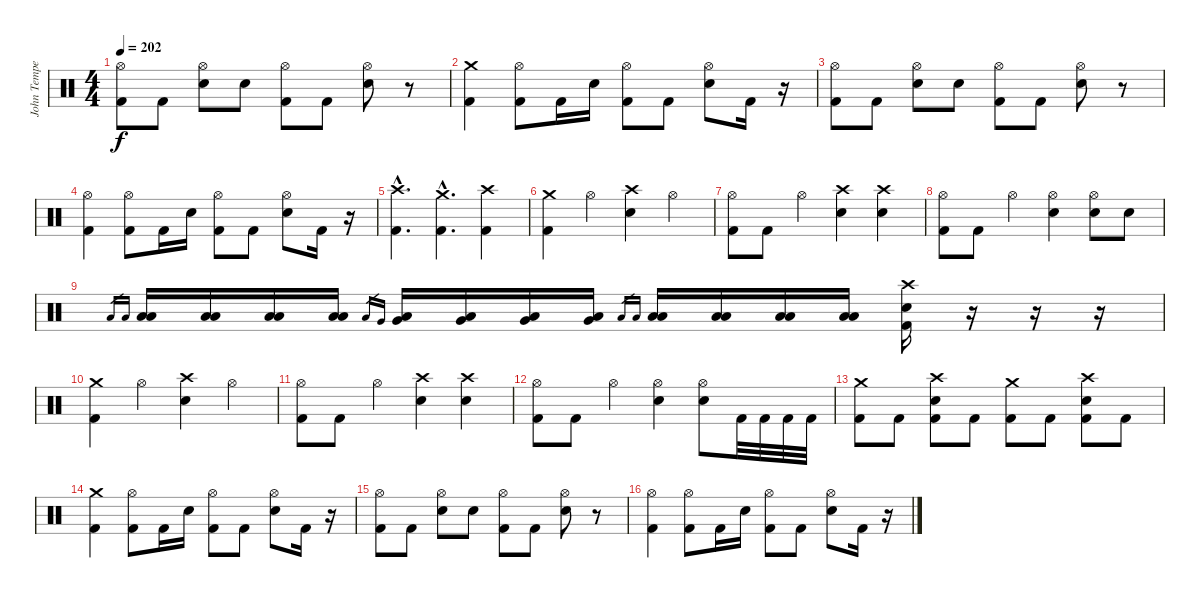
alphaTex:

\track ("John Tempesta" "John Tempe") {instrument percussion}
\staff {score}
\articulation defaults
\ts (4 4)
\tempo 202
\clef neutral
\ks c
("Kick (hit) 2" "Hi-Hat (open)").8{dy f} "Kick (hit) 2".8 ("Snare (hit) 2" "Hi-Hat (open)").8 "Snare (hit) 2".8 ("Kick (hit) 2" "Hi-Hat (open)").8 "Kick (hit) 2".8 ("Snare (hit) 2" "Hi-Hat (open)").8 r.8 |
("Kick (hit) 2" "Crash medium (hit)").4 ("Kick (hit) 2" "Hi-Hat (open)").8 "Kick (hit) 2".16 "Snare (hit) 2".16 ("Hi-Hat (open)" "Kick (hit) 2").8 "Kick (hit) 2".8 ("Snare (hit) 2" "Hi-Hat (open)").8 "Kick (hit) 2".16 r.16 |
("Kick (hit) 2" "Hi-Hat (open)").8 "Kick (hit) 2".8 ("Snare (hit) 2" "Hi-Hat (open)").8 "Snare (hit) 2".8 ("Kick (hit) 2" "Hi-Hat (open)").8 "Kick (hit) 2".8 ("Snare (hit) 2" "Hi-Hat (open)").8 r.8 |
("Kick (hit) 2" "Hi-Hat (open)").4 ("Kick (hit) 2" "Hi-Hat (open)").8 "Kick (hit) 2".16 "Snare (hit) 2".16 ("Hi-Hat (open)" "Kick (hit) 2").8 "Kick (hit) 2".8 ("Snare (hit) 2" "Hi-Hat (open)").8 "Kick (hit) 2".16 r.16 |
("Kick (hit) 2"{hac} "Crash high (hit)"{hac}).4{d} ("Kick (hit) 2"{hac} "Crash medium (hit)"{hac}).4{d} ("Kick (hit) 2" "Crash high (hit)").4 |
("Kick (hit) 2" "Crash medium (hit)").4 "Hi-Hat (open)".4 ("Snare (hit) 2" "Crash high (hit)").4 "Hi-Hat (open)".4 |
("Kick (hit) 2" "Hi-Hat (open)").8 "Kick (hit) 2".8 "Hi-Hat (open)".4 ("Snare (hit) 2" "Crash high (hit)").4 ("Snare (hit) 2" "Crash high (hit)").4 |
("Kick (hit) 2" "Hi-Hat (open)").8 "Kick (hit) 2".8 "Hi-Hat (open)".4 ("Snare (hit) 2" "Hi-Hat (open)").4 ("Snare (hit) 2" "Hi-Hat (open)").8 "Snare (hit) 2".8 |
"Low Floor Tom (hit)".16{gr} "Low Tom (hit)".16{gr} ("Low Floor Tom (hit)" "Low Tom (hit)").16 ("Low Floor Tom (hit)" "Low Tom (hit)").16 ("Low Floor Tom (hit)" "Low Tom (hit)").16 ("Low Floor Tom (hit)" "Low Tom (hit)").16 "Low Floor Tom (hit)".16{gr} "Very Low Tom (hit)".16{gr} ("Low Floor Tom (hit)" "Very Low Tom (hit)").16 ("Low Floor Tom (hit)" "Very Low Tom (hit)").16 ("Low Floor Tom (hit)" "Very Low Tom (hit)").16 ("Low Floor Tom (hit)" "Very Low Tom (hit)").16 "Low Floor Tom (hit)".16{gr} "Low Floor Tom (hit)".16{gr} ("Low Floor Tom (hit)" "Low Floor Tom (hit)").16 ("Low Floor Tom (hit)" "Low Floor Tom (hit)").16 ("Low Floor Tom (hit)" "Low Floor Tom (hit)").16 ("Low Floor Tom (hit)" "Low Floor Tom (hit)").16 ("Kick (hit) 2" "Crash high (hit)" "Snare (hit) 2").16 r.16 r.16 r.16 |
("Kick (hit) 2" "Crash medium (hit)").4 "Hi-Hat (open)".4 ("Snare (hit) 2" "Crash high (hit)").4 "Hi-Hat (open)".4 |
("Kick (hit) 2" "Hi-Hat (open)").8 "Kick (hit) 2".8 "Hi-Hat (open)".4 ("Snare (hit) 2" "Crash high (hit)").4 ("Snare (hit) 2" "Crash high (hit)").4 |
("Kick (hit) 2" "Hi-Hat (open)").8 "Kick (hit) 2".8 "Hi-Hat (open)".4 ("Snare (hit) 2" "Hi-Hat (open)").4 ("Snare (hit) 2" "Hi-Hat (open)").8 "Kick (hit) 2".32 "Kick (hit) 2".32 "Kick (hit) 2".32 "Kick (hit) 2".32 |
("Kick (hit) 2" "Crash medium (hit)").8 "Kick (hit) 2".8 ("Kick (hit) 2" "Crash high (hit)" "Snare (hit) 2").8 "Kick (hit) 2".8 ("Kick (hit) 2" "Crash medium (hit)").8 "Kick (hit) 2".8 ("Kick (hit) 2" "Crash high (hit)" "Snare (hit) 2").8 "Kick (hit) 2".8 |
("Kick (hit) 2" "Crash medium (hit)").4 ("Kick (hit) 2" "Hi-Hat (open)").8 "Kick (hit) 2".16 "Snare (hit) 2".16 ("Hi-Hat (open)" "Kick (hit) 2").8 "Kick (hit) 2".8 ("Snare (hit) 2" "Hi-Hat (open)").8 "Kick (hit) 2".16 r.16 |
("Kick (hit) 2" "Hi-Hat (open)").8 "Kick (hit) 2".8 ("Snare (hit) 2" "Hi-Hat (open)").8 "Snare (hit) 2".8 ("Kick (hit) 2" "Hi-Hat (open)").8 "Kick (hit) 2".8 ("Snare (hit) 2" "Hi-Hat (open)").8 r.8 |
("Kick (hit) 2" "Hi-Hat (open)").4 ("Kick (hit) 2" "Hi-Hat (open)").8 "Kick (hit) 2".16 "Snare (hit) 2".16 ("Hi-Hat (open)" "Kick (hit) 2").8 "Kick (hit) 2".8 ("Snare (hit) 2" "Hi-Hat (open)").8 "Kick (hit) 2".16 r.16
